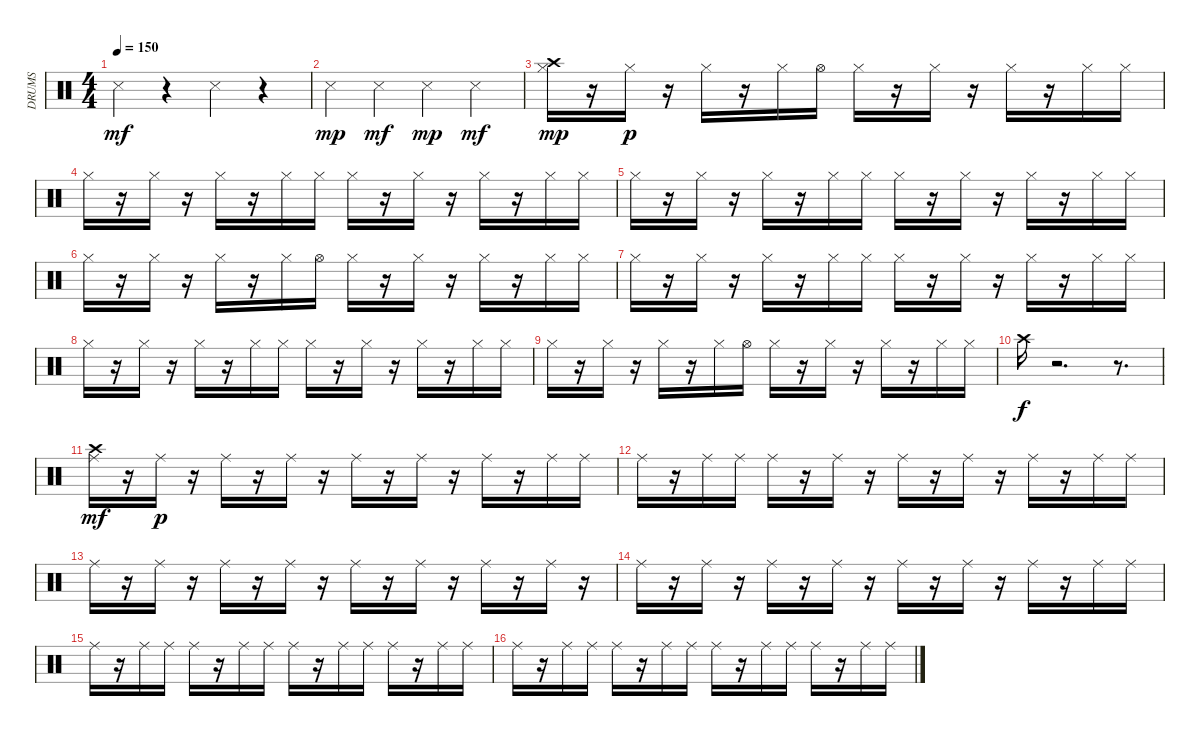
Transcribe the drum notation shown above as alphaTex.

\track ("DRUMS" "DRUMS") {instrument percussion}
\staff {score}
\articulation defaults
\ts (4 4)
\tempo 150
\clef neutral
\ks c "Snare (side stick) 3".4{dy mf}
r.4 "Snare (side stick) 3".4 r.4 |
"Snare (side stick) 3".4{dy mp} "Snare (side stick) 3".4{dy mf} "Snare (side stick) 3".4{dy mp} "Snare (side stick) 3".4{dy mf} |
("Hi-Hat (closed)" "Crash high (hit)").16{dy mp} r.16 "Hi-Hat (closed)".16{dy p} r.16 "Hi-Hat (closed)".16 r.16 "Hi-Hat (closed)".16 "Hi-Hat (open)".16 "Hi-Hat (closed)".16 r.16 "Hi-Hat (closed)".16 r.16 "Hi-Hat (closed)".16 r.16 "Hi-Hat (closed)".16 "Hi-Hat (closed)".16 |
"Hi-Hat (closed)".16 r.16 "Hi-Hat (closed)".16 r.16 "Hi-Hat (closed)".16 r.16 "Hi-Hat (closed)".16 "Hi-Hat (closed)".16 "Hi-Hat (closed)".16 r.16 "Hi-Hat (closed)".16 r.16 "Hi-Hat (closed)".16 r.16 "Hi-Hat (closed)".16 "Hi-Hat (closed)".16 |
"Hi-Hat (closed)".16 r.16 "Hi-Hat (closed)".16 r.16 "Hi-Hat (closed)".16 r.16 "Hi-Hat (closed)".16 "Hi-Hat (closed)".16 "Hi-Hat (closed)".16 r.16 "Hi-Hat (closed)".16 r.16 "Hi-Hat (closed)".16 r.16 "Hi-Hat (closed)".16 "Hi-Hat (closed)".16 |
"Hi-Hat (closed)".16 r.16 "Hi-Hat (closed)".16 r.16 "Hi-Hat (closed)".16 r.16 "Hi-Hat (closed)".16 "Hi-Hat (open)".16 "Hi-Hat (closed)".16 r.16 "Hi-Hat (closed)".16 r.16 "Hi-Hat (closed)".16 r.16 "Hi-Hat (closed)".16 "Hi-Hat (closed)".16 |
"Hi-Hat (closed)".16 r.16 "Hi-Hat (closed)".16 r.16 "Hi-Hat (closed)".16 r.16 "Hi-Hat (closed)".16 "Hi-Hat (closed)".16 "Hi-Hat (closed)".16 r.16 "Hi-Hat (closed)".16 r.16 "Hi-Hat (closed)".16 r.16 "Hi-Hat (closed)".16 "Hi-Hat (closed)".16 |
"Hi-Hat (closed)".16 r.16 "Hi-Hat (closed)".16 r.16 "Hi-Hat (closed)".16 r.16 "Hi-Hat (closed)".16 "Hi-Hat (closed)".16 "Hi-Hat (closed)".16 r.16 "Hi-Hat (closed)".16 r.16 "Hi-Hat (closed)".16 r.16 "Hi-Hat (closed)".16 "Hi-Hat (closed)".16 |
"Hi-Hat (closed)".16 r.16 "Hi-Hat (closed)".16 r.16 "Hi-Hat (closed)".16 r.16 "Hi-Hat (closed)".16 "Hi-Hat (open)".16 "Hi-Hat (closed)".16 r.16 "Hi-Hat (closed)".16 r.16 "Hi-Hat (closed)".16 r.16 "Hi-Hat (closed)".16 "Hi-Hat (closed)".16 |
"Crash high (hit)".16{dy f} r.2{d} r.8{d} |
("Ride (middle)" "Crash high (hit)").16{dy mf} r.16 "Ride (middle)".16{dy p} r.16 "Ride (middle)".16 r.16 "Ride (middle)".16 r.16 "Ride (middle)".16 r.16 "Ride (middle)".16 r.16 "Ride (middle)".16 r.16 "Ride (middle)".16 "Ride (middle)".16 |
"Ride (middle)".16 r.16 "Ride (middle)".16 "Ride (middle)".16 "Ride (middle)".16 r.16 "Ride (middle)".16 r.16 "Ride (middle)".16 r.16 "Ride (middle)".16 r.16 "Ride (middle)".16 r.16 "Ride (middle)".16 "Ride (middle)".16 |
"Ride (middle)".16 r.16 "Ride (middle)".16 r.16 "Ride (middle)".16 r.16 "Ride (middle)".16 r.16 "Ride (middle)".16 r.16 "Ride (middle)".16 r.16 "Ride (middle)".16 r.16 "Ride (middle)".16 r.16 |
"Ride (middle)".16 r.16 "Ride (middle)".16 r.16 "Ride (middle)".16 r.16 "Ride (middle)".16 r.16 "Ride (middle)".16 r.16 "Ride (middle)".16 r.16 "Ride (middle)".16 r.16 "Ride (middle)".16 "Ride (middle)".16 |
"Ride (middle)".16 r.16 "Ride (middle)".16 "Ride (middle)".16 "Ride (middle)".16 r.16 "Ride (middle)".16 "Ride (middle)".16 "Ride (middle)".16 r.16 "Ride (middle)".16 "Ride (middle)".16 "Ride (middle)".16 r.16 "Ride (middle)".16 "Ride (middle)".16 |
"Ride (middle)".16 r.16 "Ride (middle)".16 "Ride (middle)".16 "Ride (middle)".16 r.16 "Ride (middle)".16 "Ride (middle)".16 "Ride (middle)".16 r.16 "Ride (middle)".16 "Ride (middle)".16 "Ride (middle)".16 r.16 "Ride (middle)".16 "Ride (middle)".16
